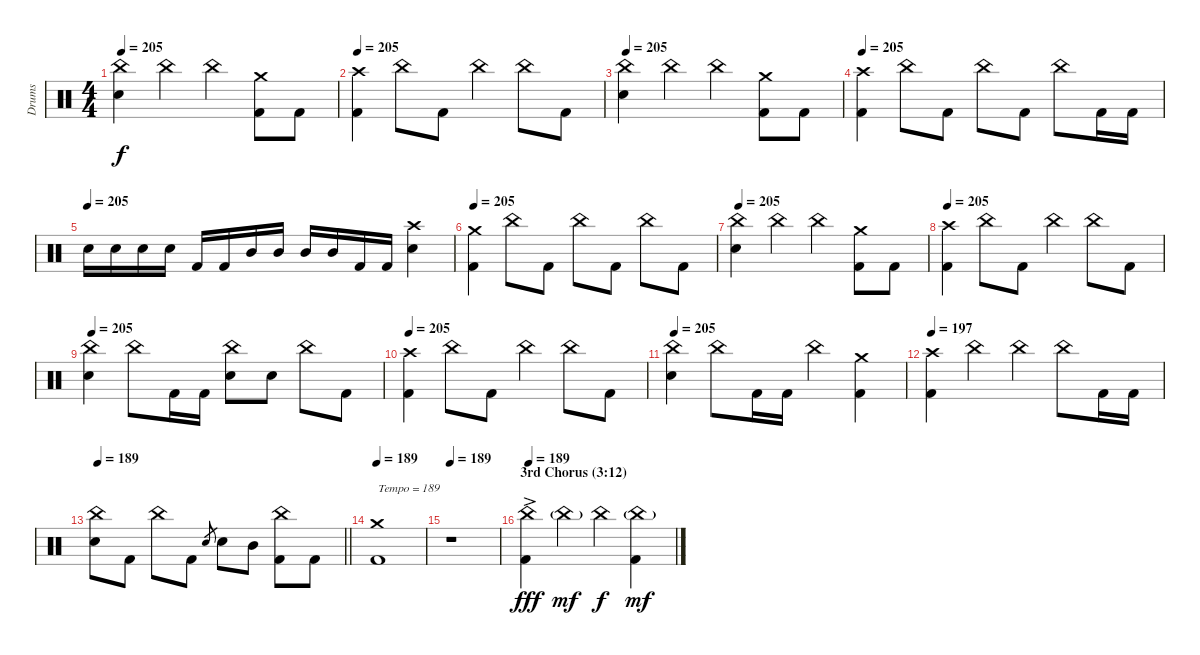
\track ("Drums" "Drums") {instrument percussion}
\staff {score}
\articulation defaults
\ts (4 4)
\tempo 205
\clef neutral
\ks c
("China (hit)" "Snare (hit) 2").4{dy f} "China (hit)".4 "China (hit)".4 ("Crash medium (hit)" "Kick (hit) 2").8 "Kick (hit) 2".8 |
\tempo 205
("Crash high (hit)" "Kick (hit) 2").4 "China (hit)".8 "Kick (hit) 2".8 "China (hit)".4 "China (hit)".8 "Kick (hit) 2".8 |
\tempo 205
("China (hit)" "Snare (hit) 2").4 "China (hit)".4 "China (hit)".4 ("Crash medium (hit)" "Kick (hit) 2").8 "Kick (hit) 2".8 |
\tempo 205
("Crash high (hit)" "Kick (hit) 2").4 "China (hit)".8 "Kick (hit) 2".8 "China (hit)".8 "Kick (hit) 2".8 "China (hit)".8 "Kick (hit) 2".16 "Kick (hit) 2".16 |
\tempo (205)
"Snare (hit) 2".16 "Snare (hit) 2".16 "Snare (hit) 2".16 "Snare (hit) 2".16 "Kick (hit) 2".16 "Kick (hit) 2".16 "Mid Tom (hit)".16 "Mid Tom (hit)".16 "Mid Tom (hit)".16 "Mid Tom (hit)".16 "Kick (hit) 2".16 "Kick (hit) 2".16 ("Crash high (hit)" "Snare (hit) 2").4 |
\tempo 205
("Crash medium (hit)" "Kick (hit) 2").4 "China (hit)".8 "Kick (hit) 2".8 "China (hit)".8 "Kick (hit) 2".8 "China (hit)".8 "Kick (hit) 2".8 |
\tempo 205
("China (hit)" "Snare (hit) 2").4 "China (hit)".4 "China (hit)".4 ("Crash medium (hit)" "Kick (hit) 2").8 "Kick (hit) 2".8 |
\tempo 205
("Crash high (hit)" "Kick (hit) 2").4 "China (hit)".8 "Kick (hit) 2".8 "China (hit)".4 "China (hit)".8 "Kick (hit) 2".8 |
\tempo 205
("China (hit)" "Snare (hit) 2").4 "China (hit)".8 "Kick (hit) 2".16 "Kick (hit) 2".16 ("China (hit)" "Snare (hit) 2").8 "Snare (hit) 2".8 "China (hit)".8 "Kick (hit) 2".8 |
\tempo 205
("Crash high (hit)" "Kick (hit) 2").4 "China (hit)".8 "Kick (hit) 2".8 "China (hit)".4 "China (hit)".8 "Kick (hit) 2".8 |
\tempo 205
("China (hit)" "Snare (hit) 2").4 "China (hit)".8 "Kick (hit) 2".16 "Kick (hit) 2".16 "China (hit)".4 ("Crash medium (hit)" "Kick (hit) 2").4 |
\tempo 197
("Crash high (hit)" "Kick (hit) 2").4 "China (hit)".4 "China (hit)".4 "China (hit)".8 "Kick (hit) 2".16 "Kick (hit) 2".16 |
\tempo 189
\barLineRight lightlight
("China (hit)" "Snare (hit) 2").8 "Kick (hit) 2".8 "China (hit)".8 "Kick (hit) 2".8 "Snare (hit) 2".8{gr} "Snare (hit) 2".8 "Mid Tom (hit)".8 ("China (hit)" "Kick (hit) 2").8 "Kick (hit) 2".8 |
\tempo 189
("Crash medium (hit)" "Kick (hit) 2").1{txt "Tempo = 189"} |
\tempo 189
r.1 |
\section ("" "3rd Chorus (3:12)")
\tempo 189
("China (hit)"{ac} "Kick (hit) 2").4{dy fff} "China (hit)"{g}.4{dy mf} "China (hit)".4{dy f} ("China (hit)"{g} "Kick (hit) 2").4{dy mf}
